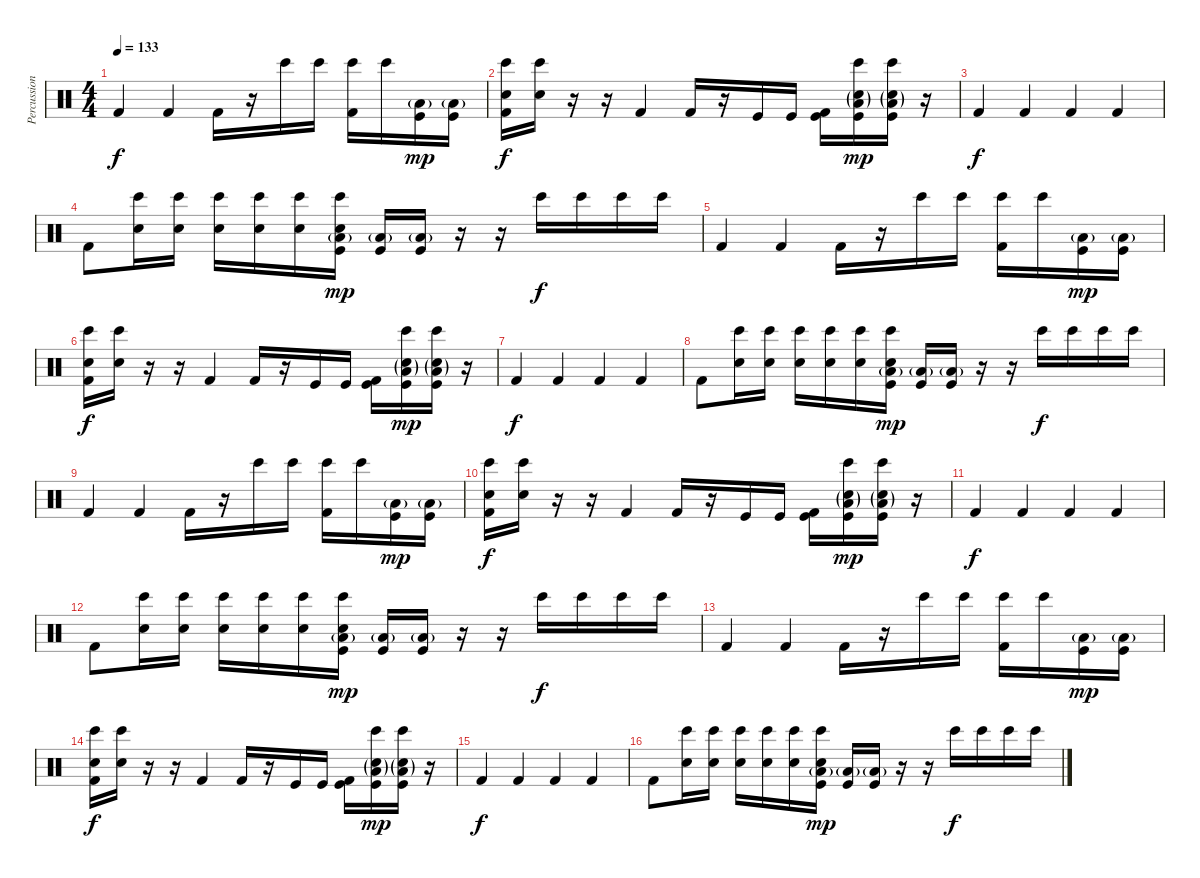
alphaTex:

\track ("Percussion" "Percussion") {instrument percussion}
\staff {score}
\articulation defaults
\ts (4 4)
\tempo 133
\clef neutral
\ks c "Kick (hit) 2".4{dy f} "Kick (hit) 2".4 "Kick (hit) 2".16
r.16 "Bongo High (hit)".16 "Bongo High (hit)".16 ("Bongo High (hit)" "Kick (hit) 2").16 "Bongo High (hit)".16 ("Low Floor Tom (hit)"{g} "Kick (hit)").16{dy mp} ("Low Floor Tom (hit)"{g} "Kick (hit)").16 |
("Bongo High (hit)" "Hand Clap (hit)" "Kick (hit) 2").16{dy f} ("Bongo High (hit)" "Hand Clap (hit)").16 r.16 r.16 "Kick (hit) 2".4 "Kick (hit) 2".16 r.16 "Kick (hit)".16 "Kick (hit)".16 ("Kick (hit)" "Kick (hit) 2").16 ("Bongo High (hit)" "Hand Clap (hit)"{g} "Low Floor Tom (hit)"{g} "Kick (hit)").16{dy mp} ("Bongo High (hit)" "Hand Clap (hit)"{g} "Low Floor Tom (hit)"{g} "Kick (hit)").16 r.16 |
"Kick (hit) 2".4{dy f} "Kick (hit) 2".4 "Kick (hit) 2".4 "Kick (hit) 2".4 |
"Kick (hit) 2".8 ("Hand Clap (hit)" "Bongo High (hit)").16 ("Hand Clap (hit)" "Bongo High (hit)").16 ("Hand Clap (hit)" "Bongo High (hit)").16 ("Hand Clap (hit)" "Bongo High (hit)").16 ("Hand Clap (hit)" "Bongo High (hit)").16 ("Low Floor Tom (hit)"{g} "Kick (hit)" "Hand Clap (hit)" "Bongo High (hit)").16{dy mp} ("Low Floor Tom (hit)"{g} "Kick (hit)").16 ("Low Floor Tom (hit)"{g} "Kick (hit)").16 r.16 r.16 "Bongo High (hit)".16{dy f} "Bongo High (hit)".16 "Bongo High (hit)".16 "Bongo High (hit)".16 |
"Kick (hit) 2".4 "Kick (hit) 2".4 "Kick (hit) 2".16 r.16 "Bongo High (hit)".16 "Bongo High (hit)".16 ("Bongo High (hit)" "Kick (hit) 2").16 "Bongo High (hit)".16 ("Low Floor Tom (hit)"{g} "Kick (hit)").16{dy mp} ("Low Floor Tom (hit)"{g} "Kick (hit)").16 |
("Bongo High (hit)" "Hand Clap (hit)" "Kick (hit) 2").16{dy f} ("Bongo High (hit)" "Hand Clap (hit)").16 r.16 r.16 "Kick (hit) 2".4 "Kick (hit) 2".16 r.16 "Kick (hit)".16 "Kick (hit)".16 ("Kick (hit)" "Kick (hit) 2").16 ("Bongo High (hit)" "Hand Clap (hit)"{g} "Low Floor Tom (hit)"{g} "Kick (hit)").16{dy mp} ("Bongo High (hit)" "Hand Clap (hit)"{g} "Low Floor Tom (hit)"{g} "Kick (hit)").16 r.16 |
"Kick (hit) 2".4{dy f} "Kick (hit) 2".4 "Kick (hit) 2".4 "Kick (hit) 2".4 |
"Kick (hit) 2".8 ("Hand Clap (hit)" "Bongo High (hit)").16 ("Hand Clap (hit)" "Bongo High (hit)").16 ("Hand Clap (hit)" "Bongo High (hit)").16 ("Hand Clap (hit)" "Bongo High (hit)").16 ("Hand Clap (hit)" "Bongo High (hit)").16 ("Low Floor Tom (hit)"{g} "Kick (hit)" "Hand Clap (hit)" "Bongo High (hit)").16{dy mp} ("Low Floor Tom (hit)"{g} "Kick (hit)").16 ("Low Floor Tom (hit)"{g} "Kick (hit)").16 r.16 r.16 "Bongo High (hit)".16{dy f} "Bongo High (hit)".16 "Bongo High (hit)".16 "Bongo High (hit)".16 |
"Kick (hit) 2".4 "Kick (hit) 2".4 "Kick (hit) 2".16 r.16 "Bongo High (hit)".16 "Bongo High (hit)".16 ("Bongo High (hit)" "Kick (hit) 2").16 "Bongo High (hit)".16 ("Low Floor Tom (hit)"{g} "Kick (hit)").16{dy mp} ("Low Floor Tom (hit)"{g} "Kick (hit)").16 |
("Bongo High (hit)" "Hand Clap (hit)" "Kick (hit) 2").16{dy f} ("Bongo High (hit)" "Hand Clap (hit)").16 r.16 r.16 "Kick (hit) 2".4 "Kick (hit) 2".16 r.16 "Kick (hit)".16 "Kick (hit)".16 ("Kick (hit)" "Kick (hit) 2").16 ("Bongo High (hit)" "Hand Clap (hit)"{g} "Low Floor Tom (hit)"{g} "Kick (hit)").16{dy mp} ("Bongo High (hit)" "Hand Clap (hit)"{g} "Low Floor Tom (hit)"{g} "Kick (hit)").16 r.16 |
"Kick (hit) 2".4{dy f} "Kick (hit) 2".4 "Kick (hit) 2".4 "Kick (hit) 2".4 |
"Kick (hit) 2".8 ("Hand Clap (hit)" "Bongo High (hit)").16 ("Hand Clap (hit)" "Bongo High (hit)").16 ("Hand Clap (hit)" "Bongo High (hit)").16 ("Hand Clap (hit)" "Bongo High (hit)").16 ("Hand Clap (hit)" "Bongo High (hit)").16 ("Low Floor Tom (hit)"{g} "Kick (hit)" "Hand Clap (hit)" "Bongo High (hit)").16{dy mp} ("Low Floor Tom (hit)"{g} "Kick (hit)").16 ("Low Floor Tom (hit)"{g} "Kick (hit)").16 r.16 r.16 "Bongo High (hit)".16{dy f} "Bongo High (hit)".16 "Bongo High (hit)".16 "Bongo High (hit)".16 |
"Kick (hit) 2".4 "Kick (hit) 2".4 "Kick (hit) 2".16 r.16 "Bongo High (hit)".16 "Bongo High (hit)".16 ("Bongo High (hit)" "Kick (hit) 2").16 "Bongo High (hit)".16 ("Low Floor Tom (hit)"{g} "Kick (hit)").16{dy mp} ("Low Floor Tom (hit)"{g} "Kick (hit)").16 |
("Bongo High (hit)" "Hand Clap (hit)" "Kick (hit) 2").16{dy f} ("Bongo High (hit)" "Hand Clap (hit)").16 r.16 r.16 "Kick (hit) 2".4 "Kick (hit) 2".16 r.16 "Kick (hit)".16 "Kick (hit)".16 ("Kick (hit)" "Kick (hit) 2").16 ("Bongo High (hit)" "Hand Clap (hit)"{g} "Low Floor Tom (hit)"{g} "Kick (hit)").16{dy mp} ("Bongo High (hit)" "Hand Clap (hit)"{g} "Low Floor Tom (hit)"{g} "Kick (hit)").16 r.16 |
"Kick (hit) 2".4{dy f} "Kick (hit) 2".4 "Kick (hit) 2".4 "Kick (hit) 2".4 |
"Kick (hit) 2".8 ("Hand Clap (hit)" "Bongo High (hit)").16 ("Hand Clap (hit)" "Bongo High (hit)").16 ("Hand Clap (hit)" "Bongo High (hit)").16 ("Hand Clap (hit)" "Bongo High (hit)").16 ("Hand Clap (hit)" "Bongo High (hit)").16 ("Low Floor Tom (hit)"{g} "Kick (hit)" "Hand Clap (hit)" "Bongo High (hit)").16{dy mp} ("Low Floor Tom (hit)"{g} "Kick (hit)").16 ("Low Floor Tom (hit)"{g} "Kick (hit)").16 r.16 r.16 "Bongo High (hit)".16{dy f} "Bongo High (hit)".16 "Bongo High (hit)".16 "Bongo High (hit)".16
